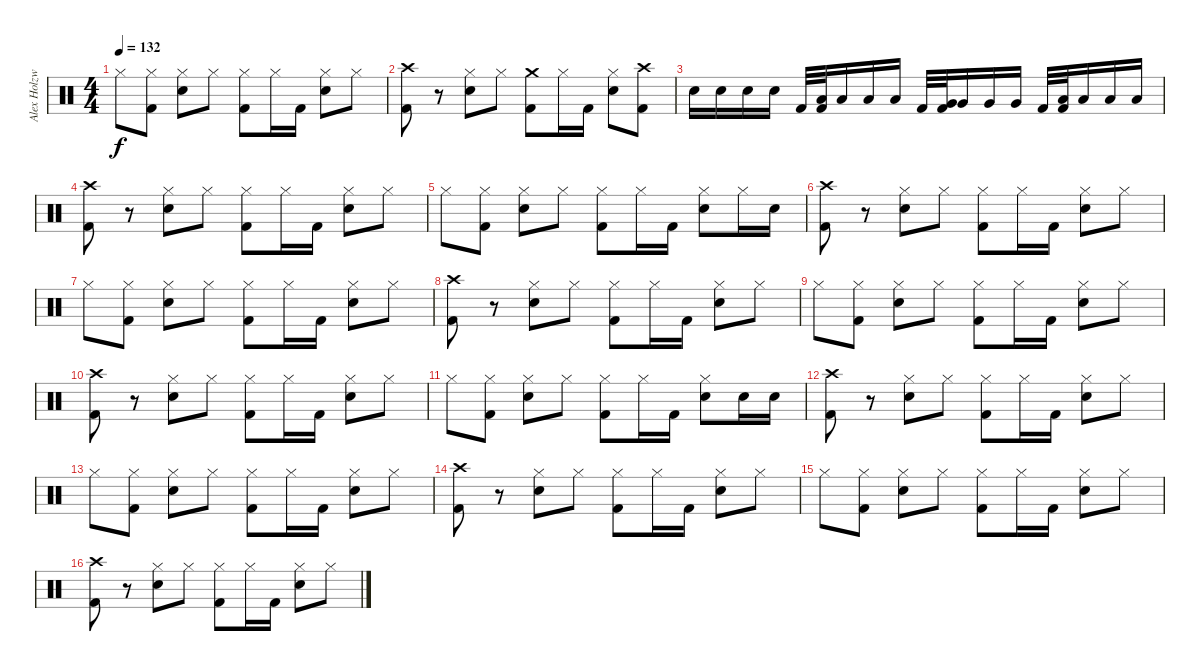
\track ("Alex Holzwarth" "Alex Holzw") {instrument percussion}
\staff {score}
\articulation defaults
\ts (4 4)
\tempo 132
\clef neutral
\ks c "Hi-Hat (closed)".8{dy f}
("Hi-Hat (closed)" "Kick (hit) 2").8 ("Hi-Hat (closed)" "Snare (hit) 2").8 "Hi-Hat (closed)".8 ("Hi-Hat (closed)" "Kick (hit) 2").8 "Hi-Hat (closed)".16 "Kick (hit) 2".16 ("Hi-Hat (closed)" "Snare (hit) 2").8 "Hi-Hat (closed)".8 |
("Crash high (hit)" "Kick (hit) 2").8 r.8 ("Hi-Hat (closed)" "Snare (hit) 2").8 "Hi-Hat (closed)".8 ("Crash medium (hit)" "Kick (hit) 2").8 "Hi-Hat (closed)".16 "Kick (hit) 2".16 ("Hi-Hat (closed)" "Snare (hit) 2").8 ("Crash high (hit)" "Kick (hit) 2").8 |
"Snare (hit) 2".16 "Snare (hit) 2".16 "Snare (hit) 2".16 "Snare (hit) 2".16 "Kick (hit) 2".32 ("Low Tom (hit)" "Kick (hit) 2").32 "Low Tom (hit)".16 "Low Tom (hit)".16 "Low Tom (hit)".16 "Kick (hit) 2".32 ("Very Low Tom (hit)" "Kick (hit) 2").32 "Very Low Tom (hit)".16 "Very Low Tom (hit)".16 "Very Low Tom (hit)".16 "Kick (hit) 2".32 ("Low Floor Tom (hit)" "Kick (hit) 2").32 "Low Floor Tom (hit)".16 "Low Floor Tom (hit)".16 "Low Floor Tom (hit)".16 |
("Crash high (hit)" "Kick (hit) 2").8 r.8 ("Hi-Hat (closed)" "Snare (hit) 2").8 "Hi-Hat (closed)".8 ("Hi-Hat (closed)" "Kick (hit) 2").8 "Hi-Hat (closed)".16 "Kick (hit) 2".16 ("Hi-Hat (closed)" "Snare (hit) 2").8 "Hi-Hat (closed)".8 |
"Hi-Hat (closed)".8 ("Hi-Hat (closed)" "Kick (hit) 2").8 ("Hi-Hat (closed)" "Snare (hit) 2").8 "Hi-Hat (closed)".8 ("Hi-Hat (closed)" "Kick (hit) 2").8 "Hi-Hat (closed)".16 "Kick (hit) 2".16 ("Hi-Hat (closed)" "Snare (hit) 2").8 "Hi-Hat (closed)".16 "Snare (hit) 2".16 |
("Crash high (hit)" "Kick (hit) 2").8 r.8 ("Hi-Hat (closed)" "Snare (hit) 2").8 "Hi-Hat (closed)".8 ("Hi-Hat (closed)" "Kick (hit) 2").8 "Hi-Hat (closed)".16 "Kick (hit) 2".16 ("Hi-Hat (closed)" "Snare (hit) 2").8 "Hi-Hat (closed)".8 |
"Hi-Hat (closed)".8 ("Hi-Hat (closed)" "Kick (hit) 2").8 ("Hi-Hat (closed)" "Snare (hit) 2").8 "Hi-Hat (closed)".8 ("Hi-Hat (closed)" "Kick (hit) 2").8 "Hi-Hat (closed)".16 "Kick (hit) 2".16 ("Hi-Hat (closed)" "Snare (hit) 2").8 "Hi-Hat (closed)".8 |
("Crash high (hit)" "Kick (hit) 2").8 r.8 ("Hi-Hat (closed)" "Snare (hit) 2").8 "Hi-Hat (closed)".8 ("Hi-Hat (closed)" "Kick (hit) 2").8 "Hi-Hat (closed)".16 "Kick (hit) 2".16 ("Hi-Hat (closed)" "Snare (hit) 2").8 "Hi-Hat (closed)".8 |
"Hi-Hat (closed)".8 ("Hi-Hat (closed)" "Kick (hit) 2").8 ("Hi-Hat (closed)" "Snare (hit) 2").8 "Hi-Hat (closed)".8 ("Hi-Hat (closed)" "Kick (hit) 2").8 "Hi-Hat (closed)".16 "Kick (hit) 2".16 ("Hi-Hat (closed)" "Snare (hit) 2").8 "Hi-Hat (closed)".8 |
("Crash high (hit)" "Kick (hit) 2").8 r.8 ("Hi-Hat (closed)" "Snare (hit) 2").8 "Hi-Hat (closed)".8 ("Hi-Hat (closed)" "Kick (hit) 2").8 "Hi-Hat (closed)".16 "Kick (hit) 2".16 ("Hi-Hat (closed)" "Snare (hit) 2").8 "Hi-Hat (closed)".8 |
"Hi-Hat (closed)".8 ("Hi-Hat (closed)" "Kick (hit) 2").8 ("Hi-Hat (closed)" "Snare (hit) 2").8 "Hi-Hat (closed)".8 ("Hi-Hat (closed)" "Kick (hit) 2").8 "Hi-Hat (closed)".16 "Kick (hit) 2".16 ("Hi-Hat (closed)" "Snare (hit) 2").8 "Snare (hit) 2".16 "Snare (hit) 2".16 |
("Crash high (hit)" "Kick (hit) 2").8 r.8 ("Hi-Hat (closed)" "Snare (hit) 2").8 "Hi-Hat (closed)".8 ("Hi-Hat (closed)" "Kick (hit) 2").8 "Hi-Hat (closed)".16 "Kick (hit) 2".16 ("Hi-Hat (closed)" "Snare (hit) 2").8 "Hi-Hat (closed)".8 |
"Hi-Hat (closed)".8 ("Hi-Hat (closed)" "Kick (hit) 2").8 ("Hi-Hat (closed)" "Snare (hit) 2").8 "Hi-Hat (closed)".8 ("Hi-Hat (closed)" "Kick (hit) 2").8 "Hi-Hat (closed)".16 "Kick (hit) 2".16 ("Hi-Hat (closed)" "Snare (hit) 2").8 "Hi-Hat (closed)".8 |
("Crash high (hit)" "Kick (hit) 2").8 r.8 ("Hi-Hat (closed)" "Snare (hit) 2").8 "Hi-Hat (closed)".8 ("Hi-Hat (closed)" "Kick (hit) 2").8 "Hi-Hat (closed)".16 "Kick (hit) 2".16 ("Hi-Hat (closed)" "Snare (hit) 2").8 "Hi-Hat (closed)".8 |
"Hi-Hat (closed)".8 ("Hi-Hat (closed)" "Kick (hit) 2").8 ("Hi-Hat (closed)" "Snare (hit) 2").8 "Hi-Hat (closed)".8 ("Hi-Hat (closed)" "Kick (hit) 2").8 "Hi-Hat (closed)".16 "Kick (hit) 2".16 ("Hi-Hat (closed)" "Snare (hit) 2").8 "Hi-Hat (closed)".8 |
("Crash high (hit)" "Kick (hit) 2").8 r.8 ("Hi-Hat (closed)" "Snare (hit) 2").8 "Hi-Hat (closed)".8 ("Hi-Hat (closed)" "Kick (hit) 2").8 "Hi-Hat (closed)".16 "Kick (hit) 2".16 ("Hi-Hat (closed)" "Snare (hit) 2").8 "Hi-Hat (closed)".8
